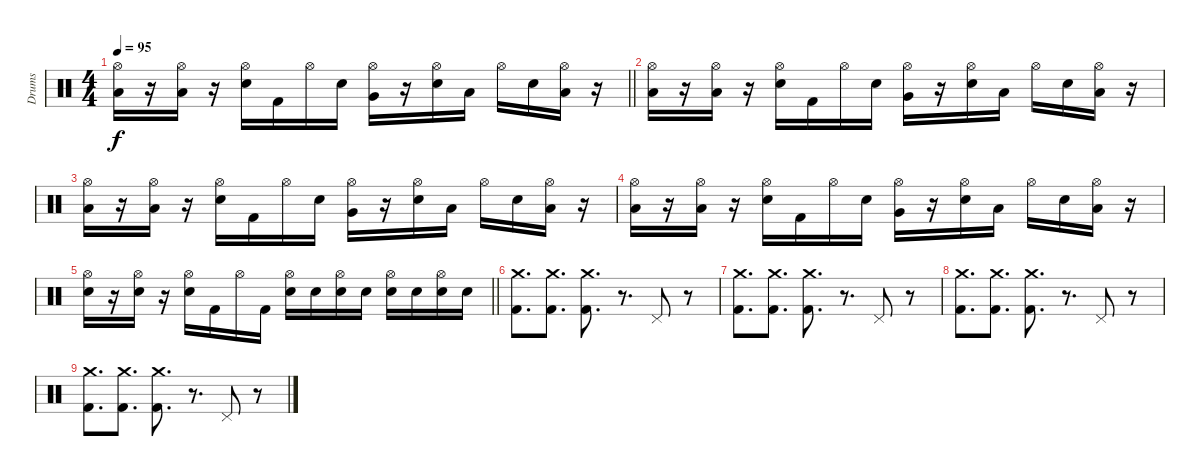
\track ("Drums" "Drums") {instrument percussion}
\staff {score}
\articulation defaults
\ts (4 4)
\tempo 95
\clef neutral
\barLineRight lightlight
\ks c
("Hi-Hat (open)" "Low Floor Tom (hit)").16{dy f} r.16 ("Hi-Hat (open)" "Low Floor Tom (hit)").16 r.16 ("Hi-Hat (open)" "Snare (hit) 2").16 "Kick (hit) 2".16 "Hi-Hat (open)".16 "Snare (hit) 2".16 ("Hi-Hat (open)" "Very Low Tom (hit)").16 r.16 ("Hi-Hat (open)" "Snare (hit) 2").16 "Low Tom (hit)".16 "Hi-Hat (open)".16 "Snare (hit) 2".16 ("Hi-Hat (open)" "Low Floor Tom (hit)").16 r.16 |
("Hi-Hat (open)" "Low Floor Tom (hit)").16 r.16 ("Hi-Hat (open)" "Low Floor Tom (hit)").16 r.16 ("Hi-Hat (open)" "Snare (hit) 2").16 "Kick (hit) 2".16 "Hi-Hat (open)".16 "Snare (hit) 2".16 ("Hi-Hat (open)" "Very Low Tom (hit)").16 r.16 ("Hi-Hat (open)" "Snare (hit) 2").16 "Low Tom (hit)".16 "Hi-Hat (open)".16 "Snare (hit) 2".16 ("Hi-Hat (open)" "Low Floor Tom (hit)").16 r.16 |
("Hi-Hat (open)" "Low Floor Tom (hit)").16 r.16 ("Hi-Hat (open)" "Low Floor Tom (hit)").16 r.16 ("Hi-Hat (open)" "Snare (hit) 2").16 "Kick (hit) 2".16 "Hi-Hat (open)".16 "Snare (hit) 2".16 ("Hi-Hat (open)" "Very Low Tom (hit)").16 r.16 ("Hi-Hat (open)" "Snare (hit) 2").16 "Low Tom (hit)".16 "Hi-Hat (open)".16 "Snare (hit) 2".16 ("Hi-Hat (open)" "Low Floor Tom (hit)").16 r.16 |
("Hi-Hat (open)" "Low Floor Tom (hit)").16 r.16 ("Hi-Hat (open)" "Low Floor Tom (hit)").16 r.16 ("Hi-Hat (open)" "Snare (hit) 2").16 "Kick (hit) 2".16 "Hi-Hat (open)".16 "Snare (hit) 2".16 ("Hi-Hat (open)" "Very Low Tom (hit)").16 r.16 ("Hi-Hat (open)" "Snare (hit) 2").16 "Low Tom (hit)".16 "Hi-Hat (open)".16 "Snare (hit) 2".16 ("Hi-Hat (open)" "Low Floor Tom (hit)").16 r.16 |
\barLineRight lightlight
("Hi-Hat (open)" "Snare (hit) 2").16 r.16 ("Hi-Hat (open)" "Snare (hit) 2").16 r.16 ("Hi-Hat (open)" "Snare (hit) 2").16 "Kick (hit) 2".16 "Hi-Hat (open)".16 "Kick (hit) 2".16 ("Hi-Hat (open)" "Snare (hit) 2").16 "Snare (hit) 2".16 ("Hi-Hat (open)" "Snare (hit) 2").16 "Snare (hit) 2".16 ("Hi-Hat (open)" "Snare (hit) 2").16 "Snare (hit) 2".16 ("Hi-Hat (open)" "Snare (hit) 2").16 "Snare (hit) 2".16 |
("Crash medium (hit)" "Kick (hit) 2").8{d} ("Crash medium (hit)" "Kick (hit) 2").8{d} ("Crash medium (hit)" "Kick (hit) 2").8{d} r.8{d} "Pedal Hi-Hat (hit)".8 r.8 |
("Crash medium (hit)" "Kick (hit) 2").8{d} ("Crash medium (hit)" "Kick (hit) 2").8{d} ("Crash medium (hit)" "Kick (hit) 2").8{d} r.8{d} "Pedal Hi-Hat (hit)".8 r.8 |
("Crash medium (hit)" "Kick (hit) 2").8{d} ("Crash medium (hit)" "Kick (hit) 2").8{d} ("Crash medium (hit)" "Kick (hit) 2").8{d} r.8{d} "Pedal Hi-Hat (hit)".8 r.8 |
("Crash medium (hit)" "Kick (hit) 2").8{d} ("Crash medium (hit)" "Kick (hit) 2").8{d} ("Crash medium (hit)" "Kick (hit) 2").8{d} r.8{d} "Pedal Hi-Hat (hit)".8 r.8
